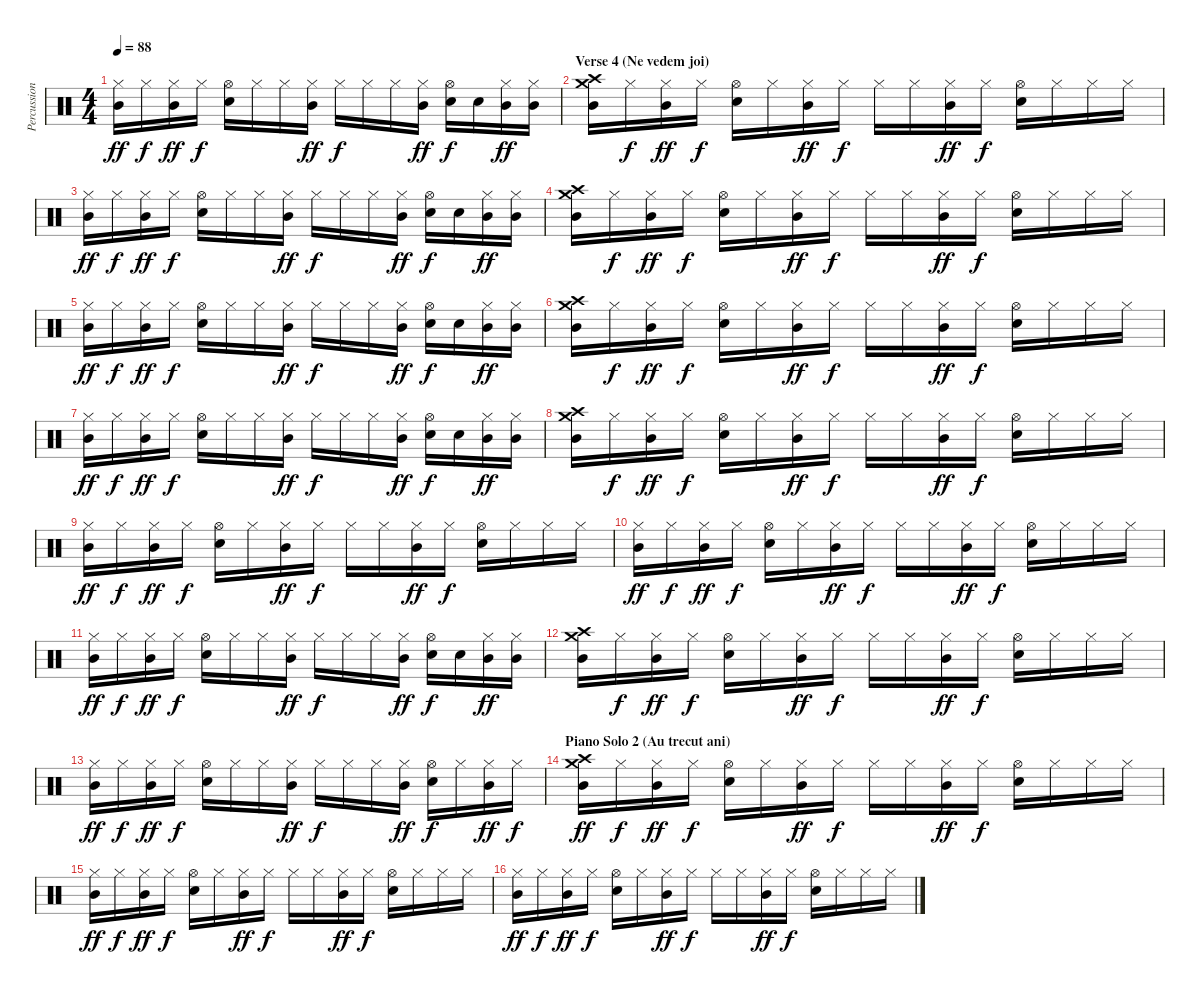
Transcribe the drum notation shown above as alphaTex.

\track ("Percussion" "Percussion") {instrument percussion}
\staff {score}
\articulation defaults
\ts (4 4)
\tempo 88
\clef neutral
\ks c
("Hi-Hat (closed)" "Mid Tom (hit)").16{dy ff} "Hi-Hat (closed)".16{dy f} ("Hi-Hat (closed)" "Mid Tom (hit)").16{dy ff} "Hi-Hat (closed)".16{dy f} ("Hi-Hat (open)" "Electric Snare (hit)").16 "Hi-Hat (closed)".16 "Hi-Hat (closed)".16 ("Hi-Hat (closed)" "Mid Tom (hit)").16{dy ff} "Hi-Hat (closed)".16{dy f} "Hi-Hat (closed)".16 "Hi-Hat (closed)".16 ("Hi-Hat (closed)" "Mid Tom (hit)").16{dy ff} ("Hi-Hat (open)" "Electric Snare (hit)").16{dy f} "Electric Snare (hit)".16 ("Hi-Hat (closed)" "Mid Tom (hit)").16{dy ff} ("Hi-Hat (closed)" "Mid Tom (hit)").16 |
\section ("" "Verse 4 (Ne vedem joi)")
("Crash medium (hit)" "Crash high (hit)" "Mid Tom (hit)").16 "Hi-Hat (closed)".16{dy f} ("Hi-Hat (closed)" "Mid Tom (hit)").16{dy ff} "Hi-Hat (closed)".16{dy f} ("Hi-Hat (open)" "Electric Snare (hit)").16 "Hi-Hat (closed)".16 ("Hi-Hat (closed)" "Mid Tom (hit)").16{dy ff} "Hi-Hat (closed)".16{dy f} "Hi-Hat (closed)".16 "Hi-Hat (closed)".16 ("Hi-Hat (closed)" "Mid Tom (hit)").16{dy ff} "Hi-Hat (closed)".16{dy f} ("Hi-Hat (open)" "Electric Snare (hit)").16 "Hi-Hat (closed)".16 "Hi-Hat (closed)".16 "Hi-Hat (closed)".16 |
("Hi-Hat (closed)" "Mid Tom (hit)").16{dy ff} "Hi-Hat (closed)".16{dy f} ("Hi-Hat (closed)" "Mid Tom (hit)").16{dy ff} "Hi-Hat (closed)".16{dy f} ("Hi-Hat (open)" "Electric Snare (hit)").16 "Hi-Hat (closed)".16 "Hi-Hat (closed)".16 ("Hi-Hat (closed)" "Mid Tom (hit)").16{dy ff} "Hi-Hat (closed)".16{dy f} "Hi-Hat (closed)".16 "Hi-Hat (closed)".16 ("Hi-Hat (closed)" "Mid Tom (hit)").16{dy ff} ("Hi-Hat (open)" "Electric Snare (hit)").16{dy f} "Electric Snare (hit)".16 ("Hi-Hat (closed)" "Mid Tom (hit)").16{dy ff} ("Hi-Hat (closed)" "Mid Tom (hit)").16 |
("Crash medium (hit)" "Crash high (hit)" "Mid Tom (hit)").16 "Hi-Hat (closed)".16{dy f} ("Hi-Hat (closed)" "Mid Tom (hit)").16{dy ff} "Hi-Hat (closed)".16{dy f} ("Hi-Hat (open)" "Electric Snare (hit)").16 "Hi-Hat (closed)".16 ("Hi-Hat (closed)" "Mid Tom (hit)").16{dy ff} "Hi-Hat (closed)".16{dy f} "Hi-Hat (closed)".16 "Hi-Hat (closed)".16 ("Hi-Hat (closed)" "Mid Tom (hit)").16{dy ff} "Hi-Hat (closed)".16{dy f} ("Hi-Hat (open)" "Electric Snare (hit)").16 "Hi-Hat (closed)".16 "Hi-Hat (closed)".16 "Hi-Hat (closed)".16 |
("Hi-Hat (closed)" "Mid Tom (hit)").16{dy ff} "Hi-Hat (closed)".16{dy f} ("Hi-Hat (closed)" "Mid Tom (hit)").16{dy ff} "Hi-Hat (closed)".16{dy f} ("Hi-Hat (open)" "Electric Snare (hit)").16 "Hi-Hat (closed)".16 "Hi-Hat (closed)".16 ("Hi-Hat (closed)" "Mid Tom (hit)").16{dy ff} "Hi-Hat (closed)".16{dy f} "Hi-Hat (closed)".16 "Hi-Hat (closed)".16 ("Hi-Hat (closed)" "Mid Tom (hit)").16{dy ff} ("Hi-Hat (open)" "Electric Snare (hit)").16{dy f} "Electric Snare (hit)".16 ("Hi-Hat (closed)" "Mid Tom (hit)").16{dy ff} ("Hi-Hat (closed)" "Mid Tom (hit)").16 |
("Crash medium (hit)" "Crash high (hit)" "Mid Tom (hit)").16 "Hi-Hat (closed)".16{dy f} ("Hi-Hat (closed)" "Mid Tom (hit)").16{dy ff} "Hi-Hat (closed)".16{dy f} ("Hi-Hat (open)" "Electric Snare (hit)").16 "Hi-Hat (closed)".16 ("Hi-Hat (closed)" "Mid Tom (hit)").16{dy ff} "Hi-Hat (closed)".16{dy f} "Hi-Hat (closed)".16 "Hi-Hat (closed)".16 ("Hi-Hat (closed)" "Mid Tom (hit)").16{dy ff} "Hi-Hat (closed)".16{dy f} ("Hi-Hat (open)" "Electric Snare (hit)").16 "Hi-Hat (closed)".16 "Hi-Hat (closed)".16 "Hi-Hat (closed)".16 |
("Hi-Hat (closed)" "Mid Tom (hit)").16{dy ff} "Hi-Hat (closed)".16{dy f} ("Hi-Hat (closed)" "Mid Tom (hit)").16{dy ff} "Hi-Hat (closed)".16{dy f} ("Hi-Hat (open)" "Electric Snare (hit)").16 "Hi-Hat (closed)".16 "Hi-Hat (closed)".16 ("Hi-Hat (closed)" "Mid Tom (hit)").16{dy ff} "Hi-Hat (closed)".16{dy f} "Hi-Hat (closed)".16 "Hi-Hat (closed)".16 ("Hi-Hat (closed)" "Mid Tom (hit)").16{dy ff} ("Hi-Hat (open)" "Electric Snare (hit)").16{dy f} "Electric Snare (hit)".16 ("Hi-Hat (closed)" "Mid Tom (hit)").16{dy ff} ("Hi-Hat (closed)" "Mid Tom (hit)").16 |
("Crash medium (hit)" "Crash high (hit)" "Mid Tom (hit)").16 "Hi-Hat (closed)".16{dy f} ("Hi-Hat (closed)" "Mid Tom (hit)").16{dy ff} "Hi-Hat (closed)".16{dy f} ("Hi-Hat (open)" "Electric Snare (hit)").16 "Hi-Hat (closed)".16 ("Hi-Hat (closed)" "Mid Tom (hit)").16{dy ff} "Hi-Hat (closed)".16{dy f} "Hi-Hat (closed)".16 "Hi-Hat (closed)".16 ("Hi-Hat (closed)" "Mid Tom (hit)").16{dy ff} "Hi-Hat (closed)".16{dy f} ("Hi-Hat (open)" "Electric Snare (hit)").16 "Hi-Hat (closed)".16 "Hi-Hat (closed)".16 "Hi-Hat (closed)".16 |
("Hi-Hat (closed)" "Mid Tom (hit)").16{dy ff} "Hi-Hat (closed)".16{dy f} ("Hi-Hat (closed)" "Mid Tom (hit)").16{dy ff} "Hi-Hat (closed)".16{dy f} ("Hi-Hat (open)" "Electric Snare (hit)").16 "Hi-Hat (closed)".16 ("Hi-Hat (closed)" "Mid Tom (hit)").16{dy ff} "Hi-Hat (closed)".16{dy f} "Hi-Hat (closed)".16 "Hi-Hat (closed)".16 ("Hi-Hat (closed)" "Mid Tom (hit)").16{dy ff} "Hi-Hat (closed)".16{dy f} ("Hi-Hat (open)" "Electric Snare (hit)").16 "Hi-Hat (closed)".16 "Hi-Hat (closed)".16 "Hi-Hat (closed)".16 |
("Hi-Hat (closed)" "Mid Tom (hit)").16{dy ff} "Hi-Hat (closed)".16{dy f} ("Hi-Hat (closed)" "Mid Tom (hit)").16{dy ff} "Hi-Hat (closed)".16{dy f} ("Hi-Hat (open)" "Electric Snare (hit)").16 "Hi-Hat (closed)".16 ("Hi-Hat (closed)" "Mid Tom (hit)").16{dy ff} "Hi-Hat (closed)".16{dy f} "Hi-Hat (closed)".16 "Hi-Hat (closed)".16 ("Hi-Hat (closed)" "Mid Tom (hit)").16{dy ff} "Hi-Hat (closed)".16{dy f} ("Hi-Hat (open)" "Electric Snare (hit)").16 "Hi-Hat (closed)".16 "Hi-Hat (closed)".16 "Hi-Hat (closed)".16 |
("Hi-Hat (closed)" "Mid Tom (hit)").16{dy ff} "Hi-Hat (closed)".16{dy f} ("Hi-Hat (closed)" "Mid Tom (hit)").16{dy ff} "Hi-Hat (closed)".16{dy f} ("Hi-Hat (open)" "Electric Snare (hit)").16 "Hi-Hat (closed)".16 "Hi-Hat (closed)".16 ("Hi-Hat (closed)" "Mid Tom (hit)").16{dy ff} "Hi-Hat (closed)".16{dy f} "Hi-Hat (closed)".16 "Hi-Hat (closed)".16 ("Hi-Hat (closed)" "Mid Tom (hit)").16{dy ff} ("Hi-Hat (open)" "Electric Snare (hit)").16{dy f} "Electric Snare (hit)".16 ("Hi-Hat (closed)" "Mid Tom (hit)").16{dy ff} ("Hi-Hat (closed)" "Mid Tom (hit)").16 |
("Crash medium (hit)" "Crash high (hit)" "Mid Tom (hit)").16 "Hi-Hat (closed)".16{dy f} ("Hi-Hat (closed)" "Mid Tom (hit)").16{dy ff} "Hi-Hat (closed)".16{dy f} ("Hi-Hat (open)" "Electric Snare (hit)").16 "Hi-Hat (closed)".16 ("Hi-Hat (closed)" "Mid Tom (hit)").16{dy ff} "Hi-Hat (closed)".16{dy f} "Hi-Hat (closed)".16 "Hi-Hat (closed)".16 ("Hi-Hat (closed)" "Mid Tom (hit)").16{dy ff} "Hi-Hat (closed)".16{dy f} ("Hi-Hat (open)" "Electric Snare (hit)").16 "Hi-Hat (closed)".16 "Hi-Hat (closed)".16 "Hi-Hat (closed)".16 |
("Hi-Hat (closed)" "Mid Tom (hit)").16{dy ff} "Hi-Hat (closed)".16{dy f} ("Hi-Hat (closed)" "Mid Tom (hit)").16{dy ff} "Hi-Hat (closed)".16{dy f} ("Hi-Hat (open)" "Electric Snare (hit)").16 "Hi-Hat (closed)".16 "Hi-Hat (closed)".16 ("Hi-Hat (closed)" "Mid Tom (hit)").16{dy ff} "Hi-Hat (closed)".16{dy f} "Hi-Hat (closed)".16 "Hi-Hat (closed)".16 ("Hi-Hat (closed)" "Mid Tom (hit)").16{dy ff} ("Hi-Hat (open)" "Electric Snare (hit)").16{dy f} "Hi-Hat (closed)".16 ("Hi-Hat (closed)" "Mid Tom (hit)").16{dy ff} "Hi-Hat (closed)".16{dy f} |
\section ("" "Piano Solo 2 (Au trecut ani)")
("Crash medium (hit)" "Crash high (hit)" "Mid Tom (hit)").16{dy ff} "Hi-Hat (closed)".16{dy f} ("Hi-Hat (closed)" "Mid Tom (hit)").16{dy ff} "Hi-Hat (closed)".16{dy f} ("Hi-Hat (open)" "Electric Snare (hit)").16 "Hi-Hat (closed)".16 ("Hi-Hat (closed)" "Mid Tom (hit)").16{dy ff} "Hi-Hat (closed)".16{dy f} "Hi-Hat (closed)".16 "Hi-Hat (closed)".16 ("Hi-Hat (closed)" "Mid Tom (hit)").16{dy ff} "Hi-Hat (closed)".16{dy f} ("Hi-Hat (open)" "Electric Snare (hit)").16 "Hi-Hat (closed)".16 "Hi-Hat (closed)".16 "Hi-Hat (closed)".16 |
("Hi-Hat (closed)" "Mid Tom (hit)").16{dy ff} "Hi-Hat (closed)".16{dy f} ("Hi-Hat (closed)" "Mid Tom (hit)").16{dy ff} "Hi-Hat (closed)".16{dy f} ("Hi-Hat (open)" "Electric Snare (hit)").16 "Hi-Hat (closed)".16 ("Hi-Hat (closed)" "Mid Tom (hit)").16{dy ff} "Hi-Hat (closed)".16{dy f} "Hi-Hat (closed)".16 "Hi-Hat (closed)".16 ("Hi-Hat (closed)" "Mid Tom (hit)").16{dy ff} "Hi-Hat (closed)".16{dy f} ("Hi-Hat (open)" "Electric Snare (hit)").16 "Hi-Hat (closed)".16 "Hi-Hat (closed)".16 "Hi-Hat (closed)".16 |
("Hi-Hat (closed)" "Mid Tom (hit)").16{dy ff} "Hi-Hat (closed)".16{dy f} ("Hi-Hat (closed)" "Mid Tom (hit)").16{dy ff} "Hi-Hat (closed)".16{dy f} ("Hi-Hat (open)" "Electric Snare (hit)").16 "Hi-Hat (closed)".16 ("Hi-Hat (closed)" "Mid Tom (hit)").16{dy ff} "Hi-Hat (closed)".16{dy f} "Hi-Hat (closed)".16 "Hi-Hat (closed)".16 ("Hi-Hat (closed)" "Mid Tom (hit)").16{dy ff} "Hi-Hat (closed)".16{dy f} ("Hi-Hat (open)" "Electric Snare (hit)").16 "Hi-Hat (closed)".16 "Hi-Hat (closed)".16 "Hi-Hat (closed)".16
